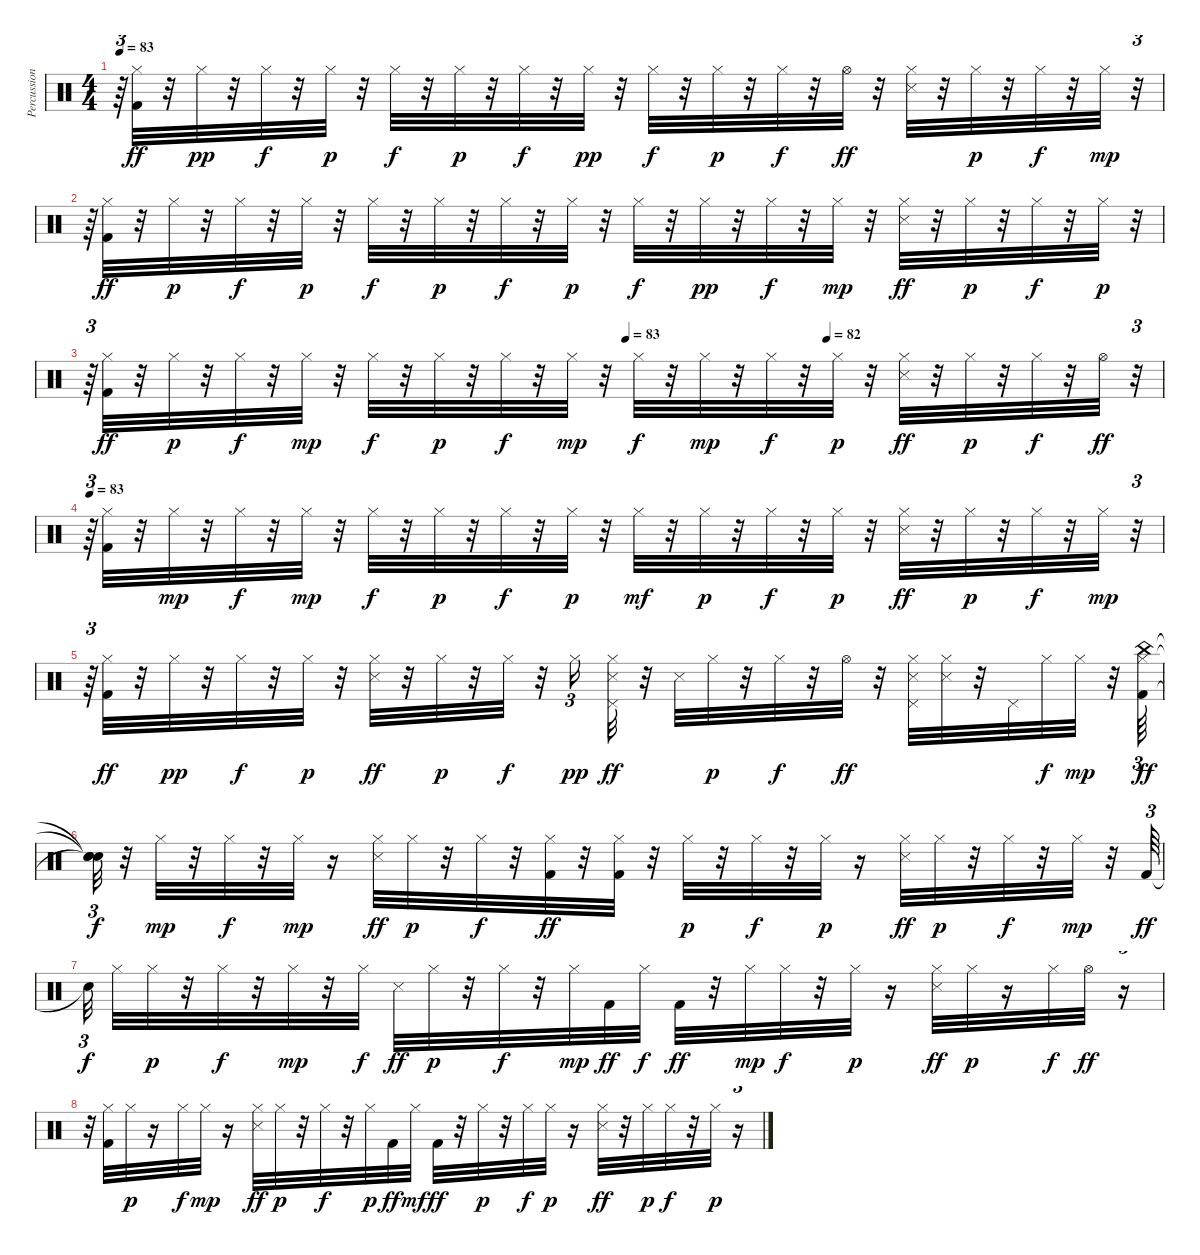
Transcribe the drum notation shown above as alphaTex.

\track ("Percussion" "Percussion") {instrument percussion}
\staff {score}
\articulation defaults
\ts (4 4)
\tempo 83
\clef neutral
\ks c
r.64{tu (3 2) dy mp} ("Hi-Hat (closed)" "Kick (hit) 2").32{dy ff} r.32 "Hi-Hat (closed)".32{dy pp} r.32 "Hi-Hat (closed)".32{dy f} r.32 "Hi-Hat (closed)".32{dy p} r.32 "Hi-Hat (closed)".32{dy f} r.32 "Hi-Hat (closed)".32{dy p} r.32 "Hi-Hat (closed)".32{dy f} r.32 "Hi-Hat (closed)".32{dy pp} r.32 "Hi-Hat (closed)".32{dy f} r.32 "Hi-Hat (closed)".32{dy p} r.32 "Hi-Hat (closed)".32{dy f} r.32 "Hi-Hat (open)".32{dy ff} r.32 ("Snare (side stick) 3" "Hi-Hat (closed)").32 r.32 "Hi-Hat (closed)".32{dy p} r.32 "Hi-Hat (closed)".32{dy f} r.32 "Hi-Hat (closed)".32{dy mp} r.32{tu (3 2)} |
r.64{tu (3 2)} ("Hi-Hat (closed)" "Kick (hit) 2").32{dy ff} r.32 "Hi-Hat (closed)".32{dy p} r.32 "Hi-Hat (closed)".32{dy f} r.32 "Hi-Hat (closed)".32{dy p} r.32 "Hi-Hat (closed)".32{dy f} r.32 "Hi-Hat (closed)".32{dy p} r.32 "Hi-Hat (closed)".32{dy f} r.32 "Hi-Hat (closed)".32{dy p} r.32 "Hi-Hat (closed)".32{dy f} r.32 "Hi-Hat (closed)".32{dy pp} r.32 "Hi-Hat (closed)".32{dy f} r.32 "Hi-Hat (closed)".32{dy mp} r.32 ("Snare (side stick) 3" "Hi-Hat (closed)").32{dy ff} r.32 "Hi-Hat (closed)".32{dy p} r.32 "Hi-Hat (closed)".32{dy f} r.32 "Hi-Hat (closed)".32{dy p} r.32{tu (3 2)} |
\tempo (83 0.5)
\tempo (82 0.6875)
r.64{tu (3 2)} ("Hi-Hat (closed)" "Kick (hit) 2").32{dy ff} r.32 "Hi-Hat (closed)".32{dy p} r.32 "Hi-Hat (closed)".32{dy f} r.32 "Hi-Hat (closed)".32{dy mp} r.32 "Hi-Hat (closed)".32{dy f} r.32 "Hi-Hat (closed)".32{dy p} r.32 "Hi-Hat (closed)".32{dy f} r.32 "Hi-Hat (closed)".32{dy mp} r.32 "Hi-Hat (closed)".32{dy f} r.32 "Hi-Hat (closed)".32{dy mp} r.32 "Hi-Hat (closed)".32{dy f} r.32 "Hi-Hat (closed)".32{dy p} r.32 ("Snare (side stick) 3" "Hi-Hat (closed)").32{dy ff} r.32 "Hi-Hat (closed)".32{dy p} r.32 "Hi-Hat (closed)".32{dy f} r.32 "Hi-Hat (open)".32{dy ff} r.32{tu (3 2)} |
\tempo 83
r.64{tu (3 2)} ("Kick (hit) 2" "Hi-Hat (closed)").32 r.32 "Hi-Hat (closed)".32{dy mp} r.32 "Hi-Hat (closed)".32{dy f} r.32 "Hi-Hat (closed)".32{dy mp} r.32 "Hi-Hat (closed)".32{dy f} r.32 "Hi-Hat (closed)".32{dy p} r.32 "Hi-Hat (closed)".32{dy f} r.32 "Hi-Hat (closed)".32{dy p} r.32 "Hi-Hat (closed)".32{dy mf} r.32 "Hi-Hat (closed)".32{dy p} r.32 "Hi-Hat (closed)".32{dy f} r.32 "Hi-Hat (closed)".32{dy p} r.32 ("Snare (side stick) 3" "Hi-Hat (closed)").32{dy ff} r.32 "Hi-Hat (closed)".32{dy p} r.32 "Hi-Hat (closed)".32{dy f} r.32 "Hi-Hat (closed)".32{dy mp} r.32{tu (3 2)} |
r.64{tu (3 2)} ("Hi-Hat (closed)" "Kick (hit) 2").32{dy ff} r.32 "Hi-Hat (closed)".32{dy pp} r.32 "Hi-Hat (closed)".32{dy f} r.32 "Hi-Hat (closed)".32{dy p} r.32 ("Snare (side stick) 3" "Hi-Hat (closed)").32{dy ff} r.32 "Hi-Hat (closed)".32{dy p} r.32 "Hi-Hat (closed)".32{dy f} r.32 "Hi-Hat (closed)".16{tu (3 2) dy pp} ("Snare (side stick) 3" "Pedal Hi-Hat (hit)" "Hi-Hat (closed)").32{dy ff} r.32 "Snare (side stick) 3".32 "Hi-Hat (closed)".32{dy p} r.32 "Hi-Hat (closed)".32{dy f} r.32 "Hi-Hat (open)".32{dy ff} r.32 ("Snare (side stick) 3" "Pedal Hi-Hat (hit)" "Hi-Hat (closed)").32 ("Hi-Hat (closed)" "Snare (side stick) 3").32 r.32 "Pedal Hi-Hat (hit)".32 "Hi-Hat (closed)".32{dy f} "Hi-Hat (closed)".32{dy mp} r.32 ("China (hit)" "Hi-Hat (closed)" "Kick (hit) 2").64{tu (3 2) dy ff} |
("Snare (hit)"{t} "Snare (hit)"{t} "Snare (hit)"{t}).32{tu (3 2) dy f} r.32 "Hi-Hat (closed)".32{dy mp} r.32 "Hi-Hat (closed)".32{dy f} r.32 "Hi-Hat (closed)".32{dy mp} r.16 ("Hi-Hat (closed)" "Snare (side stick) 3").32{dy ff} "Hi-Hat (closed)".32{dy p} r.32 "Hi-Hat (closed)".32{dy f} r.32 ("Hi-Hat (closed)" "Kick (hit) 2").32{dy ff} r.32 ("Kick (hit) 2" "Hi-Hat (closed)").32 r.32 "Hi-Hat (closed)".32{dy p} r.32 "Hi-Hat (closed)".32{dy f} r.32 "Hi-Hat (closed)".32{dy p} r.16 ("Hi-Hat (closed)" "Snare (side stick) 3").32{dy ff} "Hi-Hat (closed)".32{dy p} r.32 "Hi-Hat (closed)".32{dy f} r.32 "Hi-Hat (closed)".32{dy mp} r.32 "Kick (hit) 2".64{tu (3 2) dy ff} |
"Snare (hit)"{t}.32{tu (3 2) dy f} "Hi-Hat (closed)".32 "Hi-Hat (closed)".32{dy p} r.32 "Hi-Hat (closed)".32{dy f} r.32 "Hi-Hat (closed)".32{dy mp} r.32 "Hi-Hat (closed)".32{dy f} "Snare (side stick) 3".32{dy ff} "Hi-Hat (closed)".32{dy p} r.32 "Hi-Hat (closed)".32{dy f} r.32 "Hi-Hat (closed)".32{dy mp} "Kick (hit) 2".32{dy ff} "Hi-Hat (closed)".32{dy f} "Kick (hit) 2".32{dy ff} r.32 "Hi-Hat (closed)".32{dy mp} "Hi-Hat (closed)".32{dy f} r.32 "Hi-Hat (closed)".32{dy p} r.16 ("Hi-Hat (closed)" "Snare (side stick) 3").32{dy ff} "Hi-Hat (closed)".32{dy p} r.16 "Hi-Hat (closed)".32{dy f} "Hi-Hat (open)".32{dy ff} r.16{tu (3 2)} |
r.32{tu (3 2)} ("Kick (hit) 2" "Hi-Hat (closed)").32 "Hi-Hat (closed)".32{dy p} r.16 "Hi-Hat (closed)".32{dy f} "Hi-Hat (closed)".32{dy mp} r.16 ("Hi-Hat (closed)" "Snare (side stick) 3").32{dy ff} "Hi-Hat (closed)".32{dy p} r.32 "Hi-Hat (closed)".32{dy f} r.32 "Hi-Hat (closed)".32{dy p} "Kick (hit) 2".32{dy ff} "Hi-Hat (closed)".32{dy mf} "Kick (hit) 2".32{dy ff} r.32 "Hi-Hat (closed)".32{dy p} r.32 "Hi-Hat (closed)".32{dy f} "Hi-Hat (closed)".32{dy p} r.16 ("Hi-Hat (closed)" "Snare (side stick) 3").32{dy ff} r.32 "Hi-Hat (closed)".32{dy p} "Hi-Hat (closed)".32{dy f} r.32 "Hi-Hat (closed)".32{dy p} r.16{tu (3 2)}
